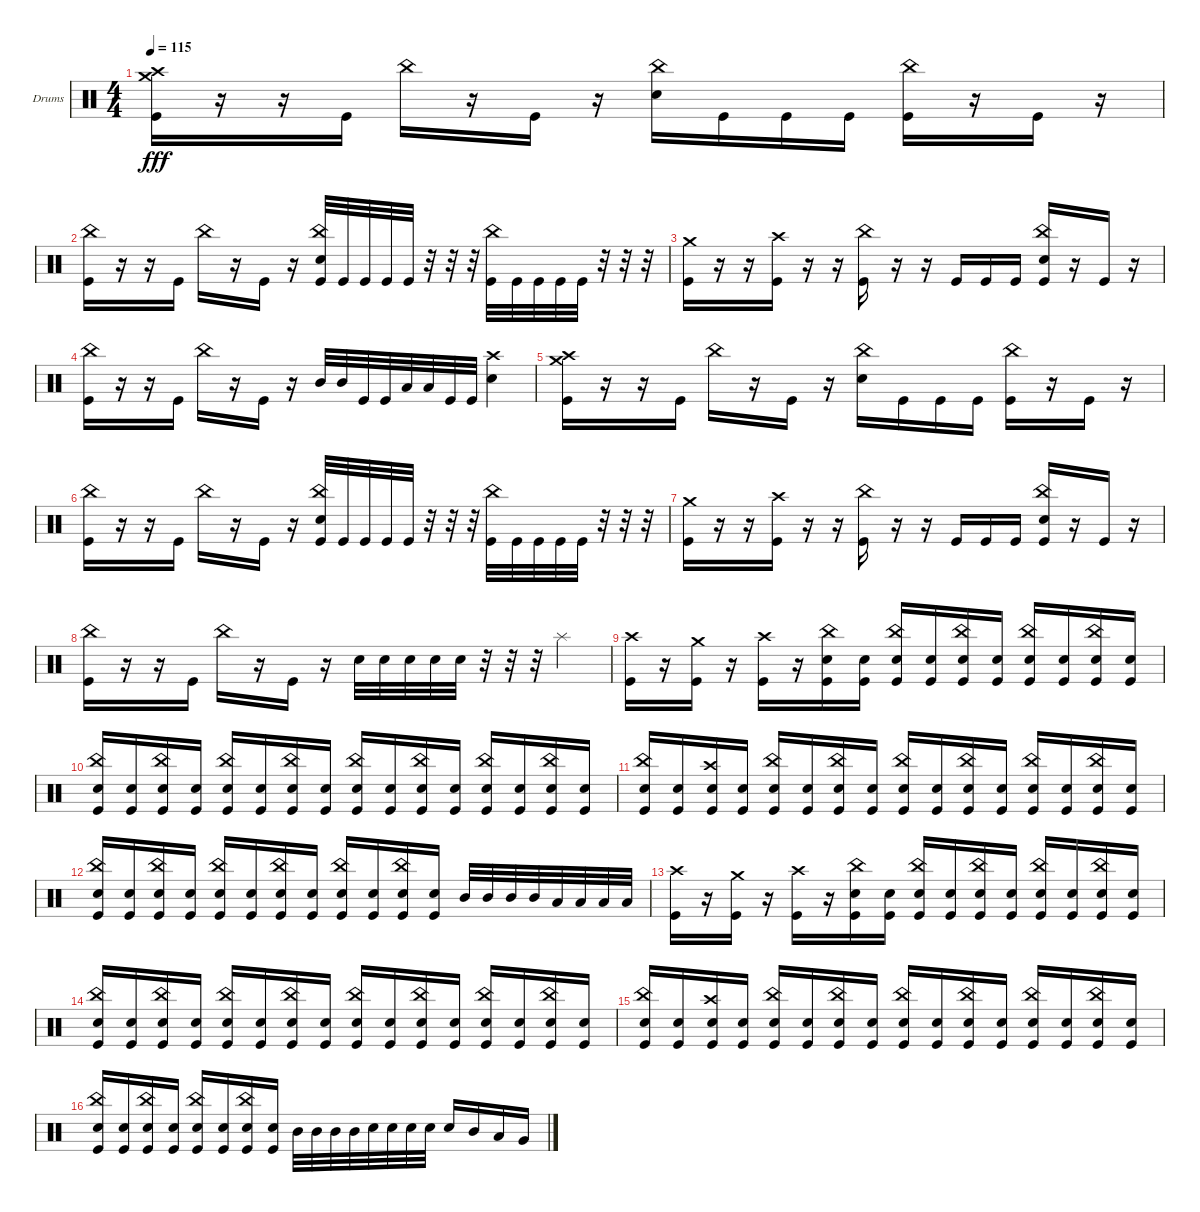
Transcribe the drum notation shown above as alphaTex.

\bracketExtendMode groupsimilarinstruments
\firstSystemTrackNameOrientation horizontal
\otherSystemsTrackNameOrientation horizontal
\track ("Drumkit" "Drums") {instrument percussion}
\staff {score}
\articulation defaults
\ts (4 4)
\tempo 115
\clef neutral
\ks c
("Kick (hit)" "Crash high (hit)" "Crash medium (hit)").16{dy fff} r.16 r.16 "Kick (hit)".16 "China (hit)".16 r.16 "Kick (hit)".16 r.16 ("Snare (hit) 2" "China (hit)").16 "Kick (hit)".16 "Kick (hit)".16 "Kick (hit)".16 ("Kick (hit)" "China (hit)").16 r.16 "Kick (hit)".16 r.16 |
("Kick (hit)" "China (hit)").16 r.16 r.16 "Kick (hit)".16 "China (hit)".16 r.16 "Kick (hit)".16 r.16 ("Kick (hit)" "Snare (hit) 2" "China (hit)").32 "Kick (hit)".32 "Kick (hit)".32 "Kick (hit)".32 "Kick (hit)".32 r.32 r.32 r.32 ("Kick (hit)" "China (hit)").32 "Kick (hit)".32 "Kick (hit)".32 "Kick (hit)".32 "Kick (hit)".32 r.32 r.32 r.32 |
("Kick (hit)" "Crash medium (hit)").16 r.16 r.16 ("Kick (hit)" "Crash high (hit)").16 r.16 r.16 ("Kick (hit)" "China (hit)").16 r.16 r.16 "Kick (hit)".16 "Kick (hit)".16 "Kick (hit)".16 ("Kick (hit)" "China (hit)" "Snare (hit) 2").16 r.16 "Kick (hit)".16 r.16 |
("Kick (hit)" "China (hit)").16 r.16 r.16 "Kick (hit)".16 "China (hit)".16 r.16 "Kick (hit)".16 r.16 "Mid Tom (hit)".32 "Mid Tom (hit)".32 "Kick (hit)".32 "Kick (hit)".32 "Low Tom (hit)".32 "Low Tom (hit)".32 "Kick (hit)".32 "Kick (hit)".32 ("Snare (hit) 2" "Crash high (hit)").4 |
("Kick (hit)" "Crash high (hit)" "Crash medium (hit)").16 r.16 r.16 "Kick (hit)".16 "China (hit)".16 r.16 "Kick (hit)".16 r.16 ("Snare (hit) 2" "China (hit)").16 "Kick (hit)".16 "Kick (hit)".16 "Kick (hit)".16 ("Kick (hit)" "China (hit)").16 r.16 "Kick (hit)".16 r.16 |
("Kick (hit)" "China (hit)").16 r.16 r.16 "Kick (hit)".16 "China (hit)".16 r.16 "Kick (hit)".16 r.16 ("Kick (hit)" "Snare (hit) 2" "China (hit)").32 "Kick (hit)".32 "Kick (hit)".32 "Kick (hit)".32 "Kick (hit)".32 r.32 r.32 r.32 ("Kick (hit)" "China (hit)").32 "Kick (hit)".32 "Kick (hit)".32 "Kick (hit)".32 "Kick (hit)".32 r.32 r.32 r.32 |
("Kick (hit)" "Crash medium (hit)").16 r.16 r.16 ("Kick (hit)" "Crash high (hit)").16 r.16 r.16 ("Kick (hit)" "China (hit)").16 r.16 r.16 "Kick (hit)".16 "Kick (hit)".16 "Kick (hit)".16 ("Kick (hit)" "China (hit)" "Snare (hit) 2").16 r.16 "Kick (hit)".16 r.16 |
("Kick (hit)" "China (hit)").16 r.16 r.16 "Kick (hit)".16 "China (hit)".16 r.16 "Kick (hit)".16 r.16 "Snare (hit) 2".32 "Snare (hit) 2".32 "Snare (hit) 2".32 "Snare (hit) 2".32 "Snare (hit) 2".32 r.32 r.32 r.32 "Splash (hit)".4 |
("Kick (hit)" "Crash high (hit)").16 r.16 ("Kick (hit)" "Crash medium (hit)").16 r.16 ("Kick (hit)" "Crash high (hit)").16 r.16 ("Snare (hit) 2" "Kick (hit)" "China (hit)").16 ("Snare (hit) 2" "Kick (hit)").16 ("Snare (hit) 2" "Kick (hit)" "China (hit)").16 ("Snare (hit) 2" "Kick (hit)").16 ("Snare (hit) 2" "Kick (hit)" "China (hit)").16 ("Snare (hit) 2" "Kick (hit)").16 ("Snare (hit) 2" "Kick (hit)" "China (hit)").16 ("Snare (hit) 2" "Kick (hit)").16 ("Snare (hit) 2" "Kick (hit)" "China (hit)").16 ("Snare (hit) 2" "Kick (hit)").16 |
("Snare (hit) 2" "Kick (hit)" "China (hit)").16 ("Snare (hit) 2" "Kick (hit)").16 ("Snare (hit) 2" "Kick (hit)" "China (hit)").16 ("Snare (hit) 2" "Kick (hit)").16 ("Snare (hit) 2" "Kick (hit)" "China (hit)").16 ("Snare (hit) 2" "Kick (hit)").16 ("Snare (hit) 2" "Kick (hit)" "China (hit)").16 ("Snare (hit) 2" "Kick (hit)").16 ("Snare (hit) 2" "Kick (hit)" "China (hit)").16 ("Snare (hit) 2" "Kick (hit)").16 ("Snare (hit) 2" "Kick (hit)" "China (hit)").16 ("Snare (hit) 2" "Kick (hit)").16 ("Snare (hit) 2" "Kick (hit)" "China (hit)").16 ("Snare (hit) 2" "Kick (hit)").16 ("Snare (hit) 2" "Kick (hit)" "China (hit)").16 ("Snare (hit) 2" "Kick (hit)").16 |
("Kick (hit)" "Snare (hit) 2" "China (hit)").16 ("Snare (hit) 2" "Kick (hit)").16 ("Snare (hit) 2" "Kick (hit)" "Crash high (hit)").16 ("Snare (hit) 2" "Kick (hit)").16 ("Snare (hit) 2" "Kick (hit)" "China (hit)").16 ("Snare (hit) 2" "Kick (hit)").16 ("Snare (hit) 2" "Kick (hit)" "China (hit)").16 ("Snare (hit) 2" "Kick (hit)").16 ("Snare (hit) 2" "Kick (hit)" "China (hit)").16 ("Snare (hit) 2" "Kick (hit)").16 ("Snare (hit) 2" "Kick (hit)" "China (hit)").16 ("Snare (hit) 2" "Kick (hit)").16 ("Snare (hit) 2" "Kick (hit)" "China (hit)").16 ("Snare (hit) 2" "Kick (hit)").16 ("Snare (hit) 2" "Kick (hit)" "China (hit)").16 ("Snare (hit) 2" "Kick (hit)").16 |
("Snare (hit) 2" "Kick (hit)" "China (hit)").16 ("Snare (hit) 2" "Kick (hit)").16 ("Snare (hit) 2" "Kick (hit)" "China (hit)").16 ("Snare (hit) 2" "Kick (hit)").16 ("Snare (hit) 2" "Kick (hit)" "China (hit)").16 ("Snare (hit) 2" "Kick (hit)").16 ("Snare (hit) 2" "Kick (hit)" "China (hit)").16 ("Snare (hit) 2" "Kick (hit)").16 ("Snare (hit) 2" "Kick (hit)" "China (hit)").16 ("Snare (hit) 2" "Kick (hit)").16 ("Snare (hit) 2" "Kick (hit)" "China (hit)").16 ("Snare (hit) 2" "Kick (hit)").16 "Mid Tom (hit)".32 "Mid Tom (hit)".32 "Mid Tom (hit)".32 "Mid Tom (hit)".32 "Low Tom (hit)".32 "Low Tom (hit)".32 "Low Tom (hit)".32 "Low Tom (hit)".32 |
("Kick (hit)" "Crash high (hit)").16 r.16 ("Kick (hit)" "Crash medium (hit)").16 r.16 ("Kick (hit)" "Crash high (hit)").16 r.16 ("Snare (hit) 2" "Kick (hit)" "China (hit)").16 ("Snare (hit) 2" "Kick (hit)").16 ("Snare (hit) 2" "Kick (hit)" "China (hit)").16 ("Snare (hit) 2" "Kick (hit)").16 ("Snare (hit) 2" "Kick (hit)" "China (hit)").16 ("Snare (hit) 2" "Kick (hit)").16 ("Snare (hit) 2" "Kick (hit)" "China (hit)").16 ("Snare (hit) 2" "Kick (hit)").16 ("Snare (hit) 2" "Kick (hit)" "China (hit)").16 ("Snare (hit) 2" "Kick (hit)").16 |
("Snare (hit) 2" "Kick (hit)" "China (hit)").16 ("Snare (hit) 2" "Kick (hit)").16 ("Snare (hit) 2" "Kick (hit)" "China (hit)").16 ("Snare (hit) 2" "Kick (hit)").16 ("Snare (hit) 2" "Kick (hit)" "China (hit)").16 ("Snare (hit) 2" "Kick (hit)").16 ("Snare (hit) 2" "Kick (hit)" "China (hit)").16 ("Snare (hit) 2" "Kick (hit)").16 ("Snare (hit) 2" "Kick (hit)" "China (hit)").16 ("Snare (hit) 2" "Kick (hit)").16 ("Snare (hit) 2" "Kick (hit)" "China (hit)").16 ("Snare (hit) 2" "Kick (hit)").16 ("Snare (hit) 2" "Kick (hit)" "China (hit)").16 ("Snare (hit) 2" "Kick (hit)").16 ("Snare (hit) 2" "Kick (hit)" "China (hit)").16 ("Snare (hit) 2" "Kick (hit)").16 |
("Kick (hit)" "Snare (hit) 2" "China (hit)").16 ("Snare (hit) 2" "Kick (hit)").16 ("Snare (hit) 2" "Kick (hit)" "Crash high (hit)").16 ("Snare (hit) 2" "Kick (hit)").16 ("Snare (hit) 2" "Kick (hit)" "China (hit)").16 ("Snare (hit) 2" "Kick (hit)").16 ("Snare (hit) 2" "Kick (hit)" "China (hit)").16 ("Snare (hit) 2" "Kick (hit)").16 ("Snare (hit) 2" "Kick (hit)" "China (hit)").16 ("Snare (hit) 2" "Kick (hit)").16 ("Snare (hit) 2" "Kick (hit)" "China (hit)").16 ("Snare (hit) 2" "Kick (hit)").16 ("Snare (hit) 2" "Kick (hit)" "China (hit)").16 ("Snare (hit) 2" "Kick (hit)").16 ("Snare (hit) 2" "Kick (hit)" "China (hit)").16 ("Snare (hit) 2" "Kick (hit)").16 |
("Snare (hit) 2" "Kick (hit)" "China (hit)").16 ("Snare (hit) 2" "Kick (hit)").16 ("Snare (hit) 2" "Kick (hit)" "China (hit)").16 ("Snare (hit) 2" "Kick (hit)").16 ("Snare (hit) 2" "Kick (hit)" "China (hit)").16 ("Snare (hit) 2" "Kick (hit)").16 ("Snare (hit) 2" "Kick (hit)" "China (hit)").16 ("Snare (hit) 2" "Kick (hit)").16 "Mid Tom (hit)".32 "Mid Tom (hit)".32 "Mid Tom (hit)".32 "Mid Tom (hit)".32 "Snare (hit) 2".32 "Snare (hit) 2".32 "Snare (hit) 2".32 "Snare (hit) 2".32 "Snare (hit) 2".16 "Mid Tom (hit)".16 "Low Tom (hit)".16 "Very Low Tom (hit)".16
